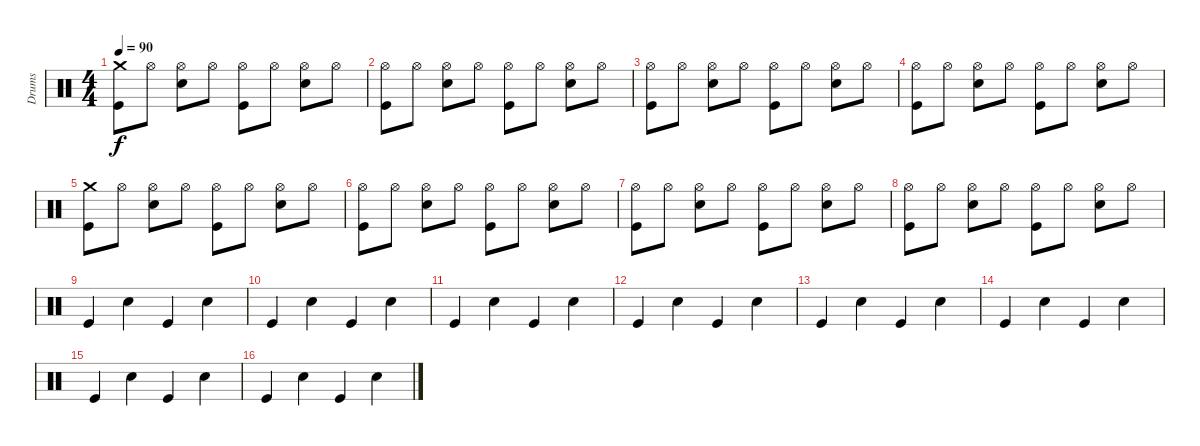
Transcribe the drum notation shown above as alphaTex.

\track ("Drums" "Drums") {instrument percussion}
\staff {score}
\articulation defaults
\ts (4 4)
\tempo 90
\clef neutral
\ks c
("Kick (hit)" "Crash medium (hit)").8{dy f} "Hi-Hat (open)".8 ("Snare (hit) 2" "Hi-Hat (open)").8 "Hi-Hat (open)".8 ("Kick (hit)" "Hi-Hat (open)").8 "Hi-Hat (open)".8 ("Snare (hit) 2" "Hi-Hat (open)").8 "Hi-Hat (open)".8 |
("Kick (hit)" "Hi-Hat (open)").8 "Hi-Hat (open)".8 ("Snare (hit) 2" "Hi-Hat (open)").8 "Hi-Hat (open)".8 ("Kick (hit)" "Hi-Hat (open)").8 "Hi-Hat (open)".8 ("Snare (hit) 2" "Hi-Hat (open)").8 "Hi-Hat (open)".8 |
("Kick (hit)" "Hi-Hat (open)").8 "Hi-Hat (open)".8 ("Snare (hit) 2" "Hi-Hat (open)").8 "Hi-Hat (open)".8 ("Kick (hit)" "Hi-Hat (open)").8 "Hi-Hat (open)".8 ("Snare (hit) 2" "Hi-Hat (open)").8 "Hi-Hat (open)".8 |
("Kick (hit)" "Hi-Hat (open)").8 "Hi-Hat (open)".8 ("Snare (hit) 2" "Hi-Hat (open)").8 "Hi-Hat (open)".8 ("Kick (hit)" "Hi-Hat (open)").8 "Hi-Hat (open)".8 ("Snare (hit) 2" "Hi-Hat (open)").8 "Hi-Hat (open)".8 |
("Kick (hit)" "Crash medium (hit)").8 "Hi-Hat (open)".8 ("Snare (hit) 2" "Hi-Hat (open)").8 "Hi-Hat (open)".8 ("Kick (hit)" "Hi-Hat (open)").8 "Hi-Hat (open)".8 ("Snare (hit) 2" "Hi-Hat (open)").8 "Hi-Hat (open)".8 |
("Kick (hit)" "Hi-Hat (open)").8 "Hi-Hat (open)".8 ("Snare (hit) 2" "Hi-Hat (open)").8 "Hi-Hat (open)".8 ("Kick (hit)" "Hi-Hat (open)").8 "Hi-Hat (open)".8 ("Snare (hit) 2" "Hi-Hat (open)").8 "Hi-Hat (open)".8 |
("Kick (hit)" "Hi-Hat (open)").8 "Hi-Hat (open)".8 ("Snare (hit) 2" "Hi-Hat (open)").8 "Hi-Hat (open)".8 ("Kick (hit)" "Hi-Hat (open)").8 "Hi-Hat (open)".8 ("Snare (hit) 2" "Hi-Hat (open)").8 "Hi-Hat (open)".8 |
("Kick (hit)" "Hi-Hat (open)").8 "Hi-Hat (open)".8 ("Snare (hit) 2" "Hi-Hat (open)").8 "Hi-Hat (open)".8 ("Kick (hit)" "Hi-Hat (open)").8 "Hi-Hat (open)".8 ("Snare (hit) 2" "Hi-Hat (open)").8 "Hi-Hat (open)".8 |
"Kick (hit)".4 "Hand Clap (hit)".4 "Kick (hit)".4 "Hand Clap (hit)".4 |
"Kick (hit)".4 "Hand Clap (hit)".4 "Kick (hit)".4 "Hand Clap (hit)".4 |
"Kick (hit)".4 "Hand Clap (hit)".4 "Kick (hit)".4 "Hand Clap (hit)".4 |
"Kick (hit)".4 "Hand Clap (hit)".4 "Kick (hit)".4 "Hand Clap (hit)".4 |
"Kick (hit)".4 "Hand Clap (hit)".4 "Kick (hit)".4 "Hand Clap (hit)".4 |
"Kick (hit)".4 "Hand Clap (hit)".4 "Kick (hit)".4 "Hand Clap (hit)".4 |
"Kick (hit)".4 "Hand Clap (hit)".4 "Kick (hit)".4 "Hand Clap (hit)".4 |
"Kick (hit)".4 "Hand Clap (hit)".4 "Kick (hit)".4 "Hand Clap (hit)".4
